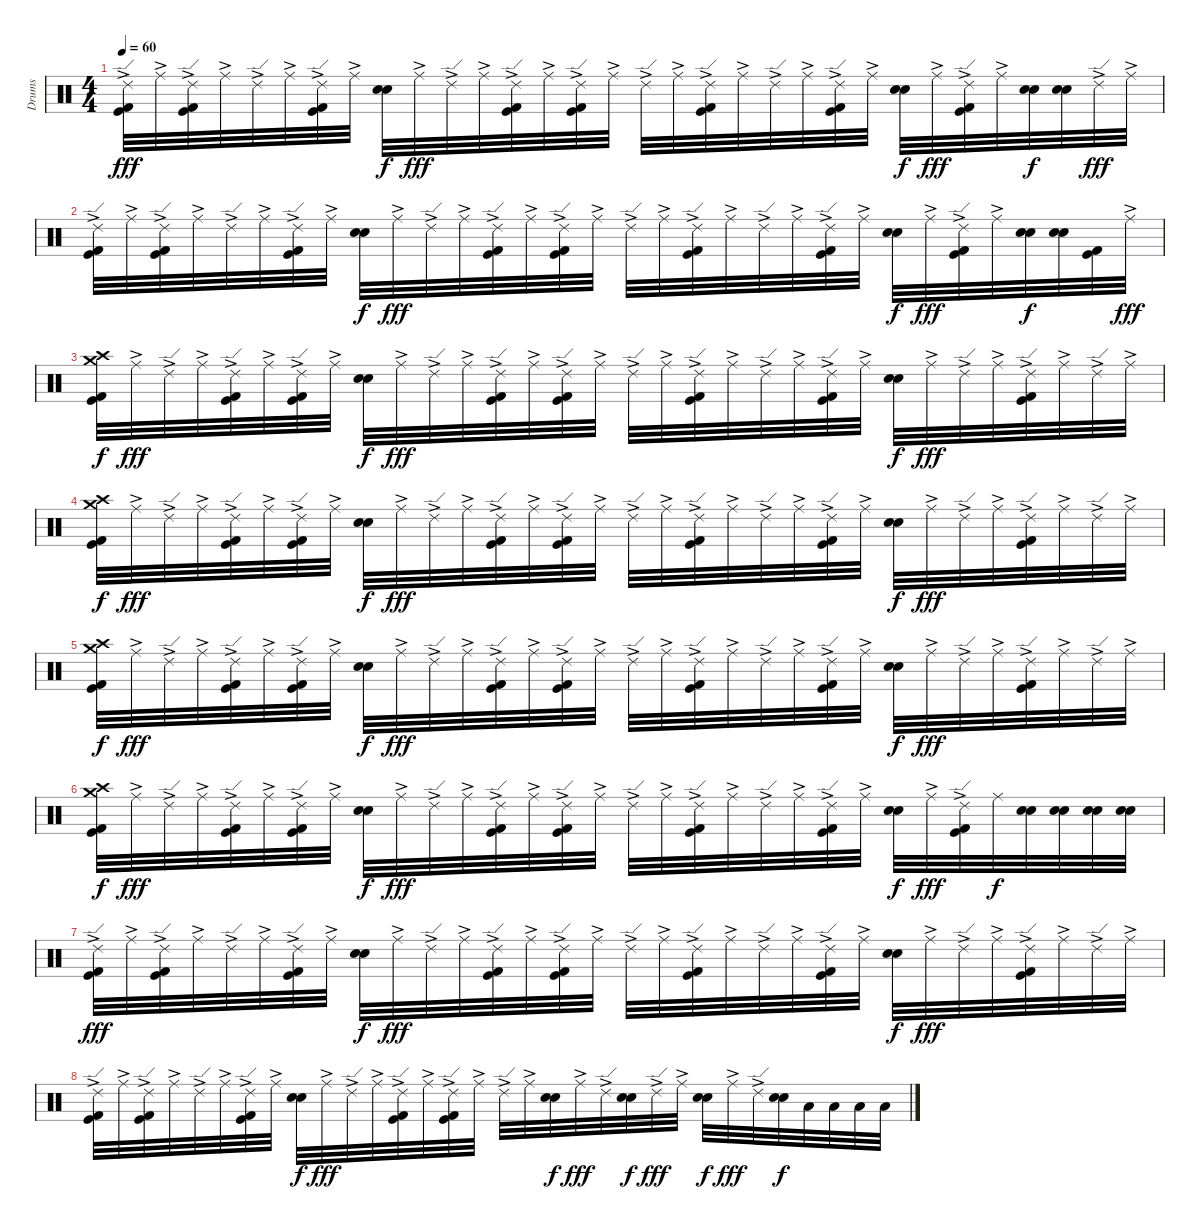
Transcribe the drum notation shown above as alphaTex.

\track ("Drums" "Drums") {instrument percussion}
\staff {score}
\articulation defaults
\ts (4 4)
\tempo 60
\clef neutral
\ks c
("Ride (edge) 2"{ac} "Kick (hit)" "Kick (hit) 2").32{dy fff} "Ride (middle)"{ac}.32 ("Ride (edge) 2"{ac} "Kick (hit)" "Kick (hit) 2").32 "Ride (middle)"{ac}.32 "Ride (edge) 2"{ac}.32 "Ride (middle)"{ac}.32 ("Ride (edge) 2"{ac} "Kick (hit)" "Kick (hit) 2").32 "Ride (middle)"{ac}.32 ("Snare (hit) 2" "Electric Snare (hit)").32{dy f} "Ride (middle)"{ac}.32{dy fff} "Ride (edge) 2"{ac}.32 "Ride (middle)"{ac}.32 ("Ride (edge) 2"{ac} "Kick (hit)" "Kick (hit) 2").32 "Ride (middle)"{ac}.32 ("Ride (edge) 2"{ac} "Kick (hit)" "Kick (hit) 2").32 "Ride (middle)"{ac}.32 "Ride (edge) 2"{ac}.32 "Ride (middle)"{ac}.32 ("Ride (edge) 2"{ac} "Kick (hit)" "Kick (hit) 2").32 "Ride (middle)"{ac}.32 "Ride (edge) 2"{ac}.32 "Ride (middle)"{ac}.32 ("Ride (edge) 2"{ac} "Kick (hit)" "Kick (hit) 2").32 "Ride (middle)"{ac}.32 ("Snare (hit) 2" "Electric Snare (hit)").32{dy f} "Ride (middle)"{ac}.32{dy fff} ("Ride (edge) 2"{ac} "Kick (hit)" "Kick (hit) 2").32 "Ride (middle)"{ac}.32 ("Snare (hit) 2" "Electric Snare (hit)").32{dy f} ("Snare (hit) 2" "Electric Snare (hit)").32 "Ride (edge) 2"{ac}.32{dy fff} "Ride (middle)"{ac}.32 |
("Ride (edge) 2"{ac} "Kick (hit)" "Kick (hit) 2").32 "Ride (middle)"{ac}.32 ("Ride (edge) 2"{ac} "Kick (hit)" "Kick (hit) 2").32 "Ride (middle)"{ac}.32 "Ride (edge) 2"{ac}.32 "Ride (middle)"{ac}.32 ("Ride (edge) 2"{ac} "Kick (hit)" "Kick (hit) 2").32 "Ride (middle)"{ac}.32 ("Snare (hit) 2" "Electric Snare (hit)").32{dy f} "Ride (middle)"{ac}.32{dy fff} "Ride (edge) 2"{ac}.32 "Ride (middle)"{ac}.32 ("Ride (edge) 2"{ac} "Kick (hit)" "Kick (hit) 2").32 "Ride (middle)"{ac}.32 ("Ride (edge) 2"{ac} "Kick (hit)" "Kick (hit) 2").32 "Ride (middle)"{ac}.32 "Ride (edge) 2"{ac}.32 "Ride (middle)"{ac}.32 ("Ride (edge) 2"{ac} "Kick (hit)" "Kick (hit) 2").32 "Ride (middle)"{ac}.32 "Ride (edge) 2"{ac}.32 "Ride (middle)"{ac}.32 ("Ride (edge) 2"{ac} "Kick (hit)" "Kick (hit) 2").32 "Ride (middle)"{ac}.32 ("Snare (hit) 2" "Electric Snare (hit)").32{dy f} "Ride (middle)"{ac}.32{dy fff} ("Ride (edge) 2"{ac} "Kick (hit)" "Kick (hit) 2").32 "Ride (middle)"{ac}.32 ("Snare (hit) 2" "Electric Snare (hit)").32{dy f} ("Snare (hit) 2" "Electric Snare (hit)").32 ("Kick (hit)" "Kick (hit) 2").32 "Ride (middle)"{ac}.32{dy fff} |
("Crash high (hit)" "Crash medium (hit)" "Kick (hit)" "Kick (hit) 2").32{dy f} "Ride (middle)"{ac}.32{dy fff} "Ride (edge) 2"{ac}.32 "Ride (middle)"{ac}.32 ("Ride (edge) 2"{ac} "Kick (hit)" "Kick (hit) 2").32 "Ride (middle)"{ac}.32 ("Ride (edge) 2"{ac} "Kick (hit)" "Kick (hit) 2").32 "Ride (middle)"{ac}.32 ("Snare (hit) 2" "Electric Snare (hit)").32{dy f} "Ride (middle)"{ac}.32{dy fff} "Ride (edge) 2"{ac}.32 "Ride (middle)"{ac}.32 ("Ride (edge) 2"{ac} "Kick (hit)" "Kick (hit) 2").32 "Ride (middle)"{ac}.32 ("Ride (edge) 2"{ac} "Kick (hit)" "Kick (hit) 2").32 "Ride (middle)"{ac}.32 "Ride (edge) 2"{ac}.32 "Ride (middle)"{ac}.32 ("Ride (edge) 2"{ac} "Kick (hit)" "Kick (hit) 2").32 "Ride (middle)"{ac}.32 "Ride (edge) 2"{ac}.32 "Ride (middle)"{ac}.32 ("Ride (edge) 2"{ac} "Kick (hit)" "Kick (hit) 2").32 "Ride (middle)"{ac}.32 ("Electric Snare (hit)" "Snare (hit) 2").32{dy f} "Ride (middle)"{ac}.32{dy fff} "Ride (edge) 2"{ac}.32 "Ride (middle)"{ac}.32 ("Ride (edge) 2"{ac} "Kick (hit)" "Kick (hit) 2").32 "Ride (middle)"{ac}.32 "Ride (edge) 2"{ac}.32 "Ride (middle)"{ac}.32 |
("Crash high (hit)" "Crash medium (hit)" "Kick (hit)" "Kick (hit) 2").32{dy f} "Ride (middle)"{ac}.32{dy fff} "Ride (edge) 2"{ac}.32 "Ride (middle)"{ac}.32 ("Ride (edge) 2"{ac} "Kick (hit)" "Kick (hit) 2").32 "Ride (middle)"{ac}.32 ("Ride (edge) 2"{ac} "Kick (hit)" "Kick (hit) 2").32 "Ride (middle)"{ac}.32 ("Snare (hit) 2" "Electric Snare (hit)").32{dy f} "Ride (middle)"{ac}.32{dy fff} "Ride (edge) 2"{ac}.32 "Ride (middle)"{ac}.32 ("Ride (edge) 2"{ac} "Kick (hit)" "Kick (hit) 2").32 "Ride (middle)"{ac}.32 ("Ride (edge) 2"{ac} "Kick (hit)" "Kick (hit) 2").32 "Ride (middle)"{ac}.32 "Ride (edge) 2"{ac}.32 "Ride (middle)"{ac}.32 ("Ride (edge) 2"{ac} "Kick (hit)" "Kick (hit) 2").32 "Ride (middle)"{ac}.32 "Ride (edge) 2"{ac}.32 "Ride (middle)"{ac}.32 ("Ride (edge) 2"{ac} "Kick (hit)" "Kick (hit) 2").32 "Ride (middle)"{ac}.32 ("Electric Snare (hit)" "Snare (hit) 2").32{dy f} "Ride (middle)"{ac}.32{dy fff} "Ride (edge) 2"{ac}.32 "Ride (middle)"{ac}.32 ("Ride (edge) 2"{ac} "Kick (hit)" "Kick (hit) 2").32 "Ride (middle)"{ac}.32 "Ride (edge) 2"{ac}.32 "Ride (middle)"{ac}.32 |
("Crash high (hit)" "Crash medium (hit)" "Kick (hit)" "Kick (hit) 2").32{dy f} "Ride (middle)"{ac}.32{dy fff} "Ride (edge) 2"{ac}.32 "Ride (middle)"{ac}.32 ("Ride (edge) 2"{ac} "Kick (hit)" "Kick (hit) 2").32 "Ride (middle)"{ac}.32 ("Ride (edge) 2"{ac} "Kick (hit)" "Kick (hit) 2").32 "Ride (middle)"{ac}.32 ("Snare (hit) 2" "Electric Snare (hit)").32{dy f} "Ride (middle)"{ac}.32{dy fff} "Ride (edge) 2"{ac}.32 "Ride (middle)"{ac}.32 ("Ride (edge) 2"{ac} "Kick (hit)" "Kick (hit) 2").32 "Ride (middle)"{ac}.32 ("Ride (edge) 2"{ac} "Kick (hit)" "Kick (hit) 2").32 "Ride (middle)"{ac}.32 "Ride (edge) 2"{ac}.32 "Ride (middle)"{ac}.32 ("Ride (edge) 2"{ac} "Kick (hit)" "Kick (hit) 2").32 "Ride (middle)"{ac}.32 "Ride (edge) 2"{ac}.32 "Ride (middle)"{ac}.32 ("Ride (edge) 2"{ac} "Kick (hit)" "Kick (hit) 2").32 "Ride (middle)"{ac}.32 ("Electric Snare (hit)" "Snare (hit) 2").32{dy f} "Ride (middle)"{ac}.32{dy fff} "Ride (edge) 2"{ac}.32 "Ride (middle)"{ac}.32 ("Ride (edge) 2"{ac} "Kick (hit)" "Kick (hit) 2").32 "Ride (middle)"{ac}.32 "Ride (edge) 2"{ac}.32 "Ride (middle)"{ac}.32 |
("Crash high (hit)" "Crash medium (hit)" "Kick (hit)" "Kick (hit) 2").32{dy f} "Ride (middle)"{ac}.32{dy fff} "Ride (edge) 2"{ac}.32 "Ride (middle)"{ac}.32 ("Ride (edge) 2"{ac} "Kick (hit)" "Kick (hit) 2").32 "Ride (middle)"{ac}.32 ("Ride (edge) 2"{ac} "Kick (hit)" "Kick (hit) 2").32 "Ride (middle)"{ac}.32 ("Snare (hit) 2" "Electric Snare (hit)").32{dy f} "Ride (middle)"{ac}.32{dy fff} "Ride (edge) 2"{ac}.32 "Ride (middle)"{ac}.32 ("Ride (edge) 2"{ac} "Kick (hit)" "Kick (hit) 2").32 "Ride (middle)"{ac}.32 ("Ride (edge) 2"{ac} "Kick (hit)" "Kick (hit) 2").32 "Ride (middle)"{ac}.32 "Ride (edge) 2"{ac}.32 "Ride (middle)"{ac}.32 ("Ride (edge) 2"{ac} "Kick (hit)" "Kick (hit) 2").32 "Ride (middle)"{ac}.32 "Ride (edge) 2"{ac}.32 "Ride (middle)"{ac}.32 ("Ride (edge) 2"{ac} "Kick (hit)" "Kick (hit) 2").32 "Ride (middle)"{ac}.32 ("Electric Snare (hit)" "Snare (hit) 2").32{dy f} "Ride (middle)"{ac}.32{dy fff} ("Ride (edge) 2"{ac} "Kick (hit) 2" "Kick (hit)").32 "Ride (middle)".32{dy f} ("Snare (hit) 2" "Electric Snare (hit)").32 ("Snare (hit) 2" "Electric Snare (hit)").32 ("Snare (hit) 2" "Electric Snare (hit)").32 ("Snare (hit) 2" "Electric Snare (hit)").32 |
("Ride (edge) 2"{ac} "Kick (hit)" "Kick (hit) 2").32{dy fff} "Ride (middle)"{ac}.32 ("Ride (edge) 2"{ac} "Kick (hit)" "Kick (hit) 2").32 "Ride (middle)"{ac}.32 "Ride (edge) 2"{ac}.32 "Ride (middle)"{ac}.32 ("Ride (edge) 2"{ac} "Kick (hit)" "Kick (hit) 2").32 "Ride (middle)"{ac}.32 ("Snare (hit) 2" "Electric Snare (hit)").32{dy f} "Ride (middle)"{ac}.32{dy fff} "Ride (edge) 2"{ac}.32 "Ride (middle)"{ac}.32 ("Ride (edge) 2"{ac} "Kick (hit)" "Kick (hit) 2").32 "Ride (middle)"{ac}.32 ("Ride (edge) 2"{ac} "Kick (hit)" "Kick (hit) 2").32 "Ride (middle)"{ac}.32 "Ride (edge) 2"{ac}.32 "Ride (middle)"{ac}.32 ("Ride (edge) 2"{ac} "Kick (hit)" "Kick (hit) 2").32 "Ride (middle)"{ac}.32 "Ride (edge) 2"{ac}.32 "Ride (middle)"{ac}.32 ("Ride (edge) 2"{ac} "Kick (hit)" "Kick (hit) 2").32 "Ride (middle)"{ac}.32 ("Snare (hit) 2" "Electric Snare (hit)").32{dy f} "Ride (middle)"{ac}.32{dy fff} "Ride (edge) 2"{ac}.32 "Ride (middle)"{ac}.32 ("Ride (edge) 2"{ac} "Kick (hit)" "Kick (hit) 2").32 "Ride (middle)"{ac}.32 "Ride (edge) 2"{ac}.32 "Ride (middle)"{ac}.32 |
("Ride (edge) 2"{ac} "Kick (hit)" "Kick (hit) 2").32 "Ride (middle)"{ac}.32 ("Ride (edge) 2"{ac} "Kick (hit)" "Kick (hit) 2").32 "Ride (middle)"{ac}.32 "Ride (edge) 2"{ac}.32 "Ride (middle)"{ac}.32 ("Ride (edge) 2"{ac} "Kick (hit)" "Kick (hit) 2").32 "Ride (middle)"{ac}.32 ("Snare (hit) 2" "Electric Snare (hit)").32{dy f} "Ride (middle)"{ac}.32{dy fff} "Ride (edge) 2"{ac}.32 "Ride (middle)"{ac}.32 ("Ride (edge) 2"{ac} "Kick (hit)" "Kick (hit) 2").32 "Ride (middle)"{ac}.32 ("Ride (edge) 2"{ac} "Kick (hit)" "Kick (hit) 2").32 "Ride (middle)"{ac}.32 "Ride (edge) 2"{ac}.32 "Ride (middle)"{ac}.32 ("Snare (hit) 2" "Electric Snare (hit)").32{dy f} "Ride (middle)"{ac}.32{dy fff} "Ride (edge) 2"{ac}.32 ("Snare (hit) 2" "Electric Snare (hit)").32{dy f} "Ride (edge) 2"{ac}.32{dy fff} "Ride (middle)"{ac}.32 ("Snare (hit) 2" "Electric Snare (hit)").32{dy f} "Ride (middle)"{ac}.32{dy fff} "Ride (edge) 2"{ac}.32 ("Snare (hit) 2" "Electric Snare (hit)").32{dy f} "Low Tom (hit)".32 "Low Tom (hit)".32 "Low Floor Tom (hit)".32 "Low Floor Tom (hit)".32
